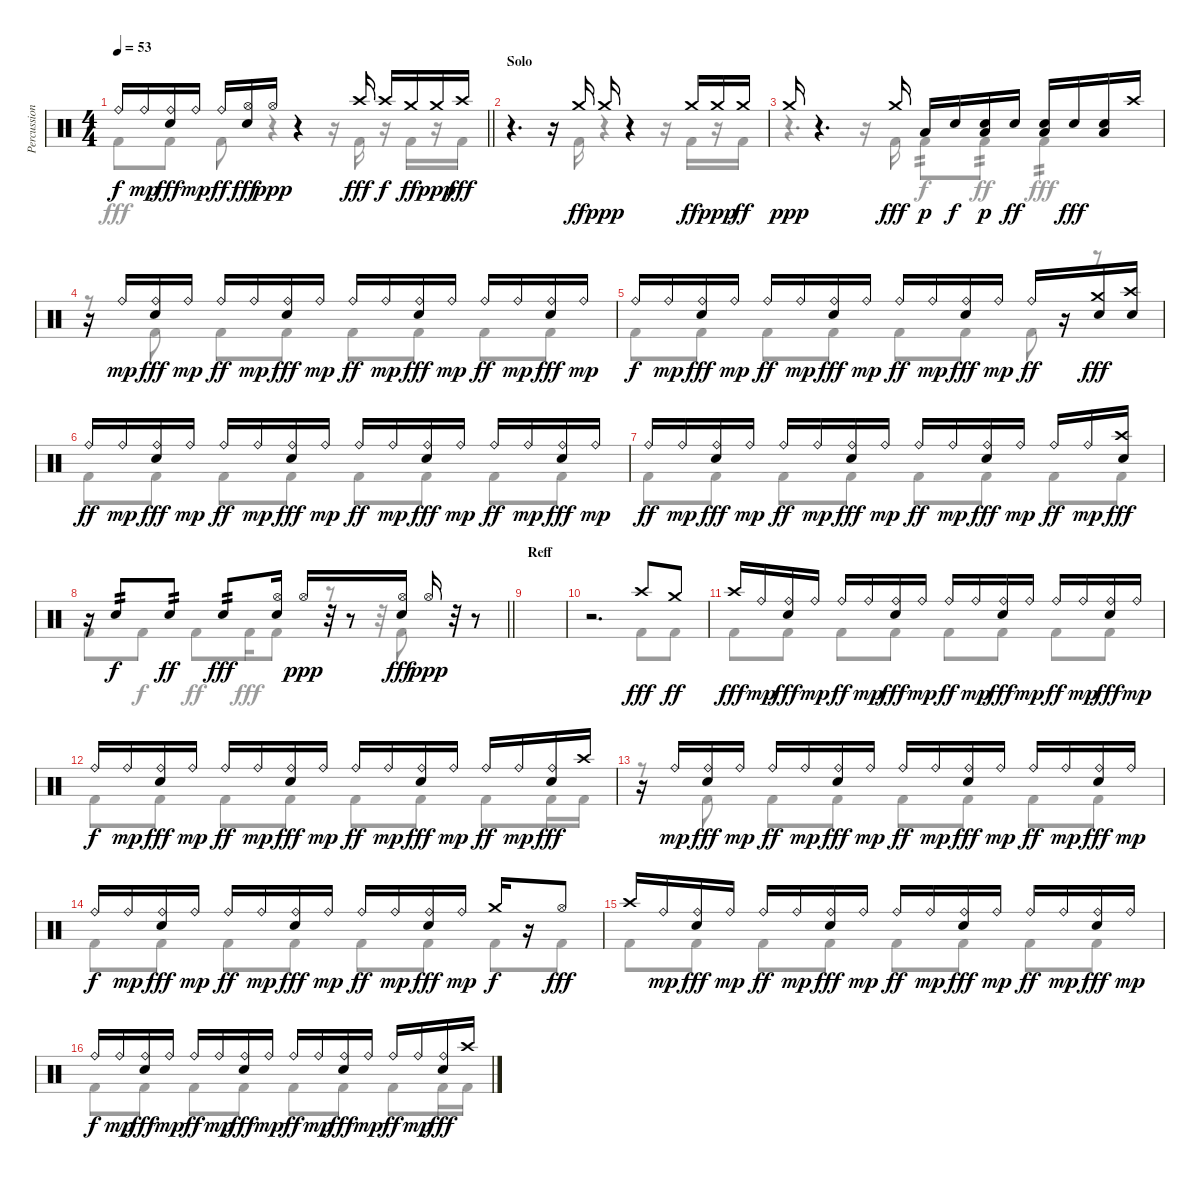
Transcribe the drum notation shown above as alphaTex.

\track ("Percussion" "Percussion") {instrument percussion}
\staff {score}
\articulation defaults
\voice
\ts (4 4)
\tempo 53
\clef neutral
\barLineRight lightlight
\ks c "Ride (bell)".16{dy f} "Ride (bell)".16{dy mp}
("Ride (bell)" "Electric Snare (hit)").16{dy fff} "Ride (bell)".16{dy mp} "Ride (bell)".16{dy ff} ("Hi-Hat (open)" "Electric Snare (hit)").16{dy fff} "Hi-Hat (open)".16{dy ppp} r.4 "Crash high (hit)".16{dy fff} "Crash high (hit)".16{dy f} "Crash medium (hit)".16{dy ff} "Crash medium (hit)".16{dy ppp} "Crash high (hit)".16{dy fff} |
\section ("" "Solo")
r.4{d} r.16 "Crash medium (hit)".16{dy ff} "Crash medium (hit)".16{dy ppp} r.4 "Crash medium (hit)".16{dy ff} "Crash medium (hit)".16{dy ppp} "Crash medium (hit)".16{dy ff} |
"Crash medium (hit)".16{dy ppp} r.4{d} "Crash medium (hit)".16{dy fff} "Low Floor Tom (hit)".16{dy p} "Electric Snare (hit)".16{dy f} ("Low Floor Tom (hit)" "Electric Snare (hit)").16{dy p} "Electric Snare (hit)".16{dy ff} ("Low Floor Tom (hit)" "Electric Snare (hit)").16 "Electric Snare (hit)".16{dy fff} ("Low Floor Tom (hit)" "Electric Snare (hit)").16 "Crash high (hit)".16 |
r.16 "Ride (bell)".16{dy mp} ("Ride (bell)" "Electric Snare (hit)").16{dy fff} "Ride (bell)".16{dy mp} "Ride (bell)".16{dy ff} "Ride (bell)".16{dy mp} ("Ride (bell)" "Electric Snare (hit)").16{dy fff} "Ride (bell)".16{dy mp} "Ride (bell)".16{dy ff} "Ride (bell)".16{dy mp} ("Ride (bell)" "Electric Snare (hit)").16{dy fff} "Ride (bell)".16{dy mp} "Ride (bell)".16{dy ff} "Ride (bell)".16{dy mp} ("Ride (bell)" "Electric Snare (hit)").16{dy fff} "Ride (bell)".16{dy mp} |
"Ride (bell)".16{dy f} "Ride (bell)".16{dy mp} ("Ride (bell)" "Electric Snare (hit)").16{dy fff} "Ride (bell)".16{dy mp} "Ride (bell)".16{dy ff} "Ride (bell)".16{dy mp} ("Ride (bell)" "Electric Snare (hit)").16{dy fff} "Ride (bell)".16{dy mp} "Ride (bell)".16{dy ff} "Ride (bell)".16{dy mp} ("Ride (bell)" "Electric Snare (hit)").16{dy fff} "Ride (bell)".16{dy mp} "Ride (bell)".16{dy ff} r.16 ("Crash medium (hit)" "Electric Snare (hit)").16{dy fff} ("Crash high (hit)" "Electric Snare (hit)").16 |
"Ride (bell)".16{dy ff} "Ride (bell)".16{dy mp} ("Ride (bell)" "Electric Snare (hit)").16{dy fff} "Ride (bell)".16{dy mp} "Ride (bell)".16{dy ff} "Ride (bell)".16{dy mp} ("Ride (bell)" "Electric Snare (hit)").16{dy fff} "Ride (bell)".16{dy mp} "Ride (bell)".16{dy ff} "Ride (bell)".16{dy mp} ("Ride (bell)" "Electric Snare (hit)").16{dy fff} "Ride (bell)".16{dy mp} "Ride (bell)".16{dy ff} "Ride (bell)".16{dy mp} ("Ride (bell)" "Electric Snare (hit)").16{dy fff} "Ride (bell)".16{dy mp} |
"Ride (bell)".16{dy ff} "Ride (bell)".16{dy mp} ("Ride (bell)" "Electric Snare (hit)").16{dy fff} "Ride (bell)".16{dy mp} "Ride (bell)".16{dy ff} "Ride (bell)".16{dy mp} ("Ride (bell)" "Electric Snare (hit)").16{dy fff} "Ride (bell)".16{dy mp} "Ride (bell)".16{dy ff} "Ride (bell)".16{dy mp} ("Ride (bell)" "Electric Snare (hit)").16{dy fff} "Ride (bell)".16{dy mp} "Ride (bell)".16{dy ff} "Ride (bell)".16{dy mp} ("Crash high (hit)" "Electric Snare (hit)").16{dy fff} |
\barLineRight lightlight
r.16 "Electric Snare (hit)".8{tp 2 dy f} "Electric Snare (hit)".8{tp 2 dy ff} "Electric Snare (hit)".8{tp 2 dy fff} ("Hi-Hat (open)" "Electric Snare (hit)").16 "Hi-Hat (open)".16{dy ppp} r.32 r.8 ("Hi-Hat (open)" "Electric Snare (hit)").16{dy fff} "Hi-Hat (open)".16{dy ppp} r.32 r.8 |
\section ("" "Reff")
|
r.2{d} "Crash high (hit)".8{dy fff} "Crash medium (hit)".8{dy ff} |
"Crash high (hit)".16{dy fff} "Ride (bell)".16{dy mp} ("Ride (bell)" "Electric Snare (hit)").16{dy fff} "Ride (bell)".16{dy mp} "Ride (bell)".16{dy ff} "Ride (bell)".16{dy mp} ("Ride (bell)" "Electric Snare (hit)").16{dy fff} "Ride (bell)".16{dy mp} "Ride (bell)".16{dy ff} "Ride (bell)".16{dy mp} ("Ride (bell)" "Electric Snare (hit)").16{dy fff} "Ride (bell)".16{dy mp} "Ride (bell)".16{dy ff} "Ride (bell)".16{dy mp} ("Ride (bell)" "Electric Snare (hit)").16{dy fff} "Ride (bell)".16{dy mp} |
"Ride (bell)".16{dy f} "Ride (bell)".16{dy mp} ("Ride (bell)" "Electric Snare (hit)").16{dy fff} "Ride (bell)".16{dy mp} "Ride (bell)".16{dy ff} "Ride (bell)".16{dy mp} ("Ride (bell)" "Electric Snare (hit)").16{dy fff} "Ride (bell)".16{dy mp} "Ride (bell)".16{dy ff} "Ride (bell)".16{dy mp} ("Ride (bell)" "Electric Snare (hit)").16{dy fff} "Ride (bell)".16{dy mp} "Ride (bell)".16{dy ff} "Ride (bell)".16{dy mp} ("Ride (bell)" "Electric Snare (hit)").16{dy fff} "Crash high (hit)".16 |
r.16 "Ride (bell)".16{dy mp} ("Ride (bell)" "Electric Snare (hit)").16{dy fff} "Ride (bell)".16{dy mp} "Ride (bell)".16{dy ff} "Ride (bell)".16{dy mp} ("Ride (bell)" "Electric Snare (hit)").16{dy fff} "Ride (bell)".16{dy mp} "Ride (bell)".16{dy ff} "Ride (bell)".16{dy mp} ("Ride (bell)" "Electric Snare (hit)").16{dy fff} "Ride (bell)".16{dy mp} "Ride (bell)".16{dy ff} "Ride (bell)".16{dy mp} ("Ride (bell)" "Electric Snare (hit)").16{dy fff} "Ride (bell)".16{dy mp} |
"Ride (bell)".16{dy f} "Ride (bell)".16{dy mp} ("Ride (bell)" "Electric Snare (hit)").16{dy fff} "Ride (bell)".16{dy mp} "Ride (bell)".16{dy ff} "Ride (bell)".16{dy mp} ("Ride (bell)" "Electric Snare (hit)").16{dy fff} "Ride (bell)".16{dy mp} "Ride (bell)".16{dy ff} "Ride (bell)".16{dy mp} ("Ride (bell)" "Electric Snare (hit)").16{dy fff} "Ride (bell)".16{dy mp} "Crash medium (hit)".16{dy f} r.16 "Hi-Hat (open)".8{dy fff} |
"Crash high (hit)".16 "Ride (bell)".16{dy mp} ("Ride (bell)" "Electric Snare (hit)").16{dy fff} "Ride (bell)".16{dy mp} "Ride (bell)".16{dy ff} "Ride (bell)".16{dy mp} ("Ride (bell)" "Electric Snare (hit)").16{dy fff} "Ride (bell)".16{dy mp} "Ride (bell)".16{dy ff} "Ride (bell)".16{dy mp} ("Ride (bell)" "Electric Snare (hit)").16{dy fff} "Ride (bell)".16{dy mp} "Ride (bell)".16{dy ff} "Ride (bell)".16{dy mp} ("Ride (bell)" "Electric Snare (hit)").16{dy fff} "Ride (bell)".16{dy mp} |
"Ride (bell)".16{dy f} "Ride (bell)".16{dy mp} ("Ride (bell)" "Electric Snare (hit)").16{dy fff} "Ride (bell)".16{dy mp} "Ride (bell)".16{dy ff} "Ride (bell)".16{dy mp} ("Ride (bell)" "Electric Snare (hit)").16{dy fff} "Ride (bell)".16{dy mp} "Ride (bell)".16{dy ff} "Ride (bell)".16{dy mp} ("Ride (bell)" "Electric Snare (hit)").16{dy fff} "Ride (bell)".16{dy mp} "Ride (bell)".16{dy ff} "Ride (bell)".16{dy mp} ("Ride (bell)" "Electric Snare (hit)").16{dy fff} "Crash high (hit)".16
\voice
\clef neutral
\ottava regular
\simile none
\barLineRight lightlight
\ks c "Kick (hit) 2".8{dy fff} "Kick (hit) 2".8 "Kick (hit) 2".8
r.4 r.16 "Kick (hit) 2".16 r.16 "Kick (hit) 2".16 r.16 "Kick (hit) 2".16 |
r.4{d} r.16 "Kick (hit) 2".16 r.4 r.16 "Kick (hit) 2".16 r.16 "Kick (hit) 2".16 |
r.4{d} r.16 "Kick (hit) 2".16 "Kick (hit) 2".8{tp 2 dy f} "Kick (hit) 2".8{tp 2 dy ff} "Kick (hit) 2".4{tp 2 dy fff} |
r.8 "Kick (hit) 2".8 "Kick (hit) 2".8 "Kick (hit) 2".8 "Kick (hit) 2".8 "Kick (hit) 2".8 "Kick (hit) 2".8 "Kick (hit) 2".8 |
"Kick (hit) 2".8 "Kick (hit) 2".8 "Kick (hit) 2".8 "Kick (hit) 2".8 "Kick (hit) 2".8 "Kick (hit) 2".8 "Kick (hit) 2".8 r.8 |
"Kick (hit) 2".8 "Kick (hit) 2".8 "Kick (hit) 2".8 "Kick (hit) 2".8 "Kick (hit) 2".8 "Kick (hit) 2".8 "Kick (hit) 2".8 "Kick (hit) 2".8 |
"Kick (hit) 2".8 "Kick (hit) 2".8 "Kick (hit) 2".8 "Kick (hit) 2".8 "Kick (hit) 2".8 "Kick (hit) 2".8 "Kick (hit) 2".8 "Kick (hit) 2".8 |
\barLineRight lightlight "Kick (hit) 2".8 "Kick (hit) 2".8{dy f} "Kick (hit) 2".8{dy ff} "Kick (hit) 2".16{dy fff} "Kick (hit) 2".8
r.8 r.32 "Kick (hit) 2".8 |
|
r.2{d} "Kick (hit) 2".8 "Kick (hit) 2".8 |
"Kick (hit) 2".8 "Kick (hit) 2".8 "Kick (hit) 2".8 "Kick (hit) 2".8 "Kick (hit) 2".8 "Kick (hit) 2".8 "Kick (hit) 2".8 "Kick (hit) 2".8 |
"Kick (hit) 2".8 "Kick (hit) 2".8 "Kick (hit) 2".8 "Kick (hit) 2".8 "Kick (hit) 2".8 "Kick (hit) 2".8 "Kick (hit) 2".8 "Kick (hit) 2".16 "Kick (hit) 2".16 |
r.8 "Kick (hit) 2".8 "Kick (hit) 2".8 "Kick (hit) 2".8 "Kick (hit) 2".8 "Kick (hit) 2".8 "Kick (hit) 2".8 "Kick (hit) 2".8 |
"Kick (hit) 2".8 "Kick (hit) 2".8 "Kick (hit) 2".8 "Kick (hit) 2".8 "Kick (hit) 2".8 "Kick (hit) 2".8 "Kick (hit) 2".8 "Kick (hit) 2".8 |
"Kick (hit) 2".8 "Kick (hit) 2".8 "Kick (hit) 2".8 "Kick (hit) 2".8 "Kick (hit) 2".8 "Kick (hit) 2".8 "Kick (hit) 2".8 "Kick (hit) 2".8 |
"Kick (hit) 2".8 "Kick (hit) 2".8 "Kick (hit) 2".8 "Kick (hit) 2".8 "Kick (hit) 2".8 "Kick (hit) 2".8 "Kick (hit) 2".8 "Kick (hit) 2".16 "Kick (hit) 2".16
